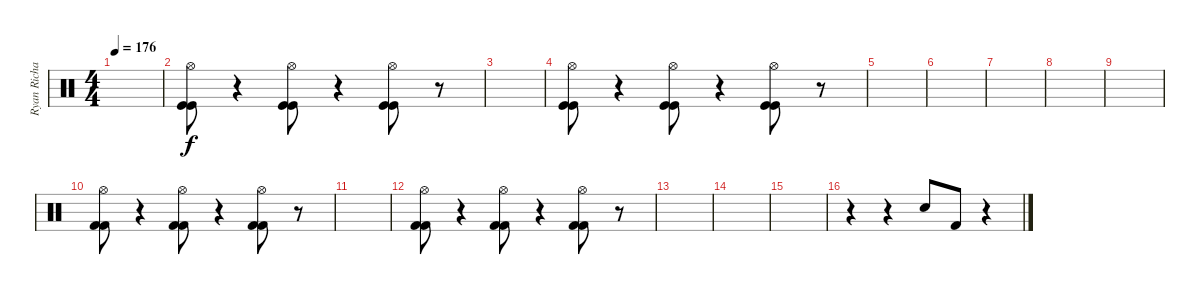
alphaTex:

\track ("Ryan Richards (drums)" "Ryan Richa") {instrument percussion}
\staff {score}
\articulation defaults
\ts (4 4)
\tempo 176
\clef neutral
\ks c
|
("Hi-Hat (open)" "Kick (hit)" "Kick (hit)").8 r.4{volume 0} ("Hi-Hat (open)" "Kick (hit)" "Kick (hit)").8{volume 13} r.4{volume 0} ("Hi-Hat (open)" "Kick (hit)" "Kick (hit)").8{volume 13} r.8{volume 0} |
|
("Hi-Hat (open)" "Kick (hit)" "Kick (hit)").8{volume 13} r.4{volume 0} ("Hi-Hat (open)" "Kick (hit)" "Kick (hit)").8{volume 13} r.4{volume 0} ("Hi-Hat (open)" "Kick (hit)" "Kick (hit)").8{volume 13} r.8{volume 0} |
|
|
|
|
|
("Hi-Hat (open)" "Kick (hit) 2" "Kick (hit) 2").8{volume 13} r.4{volume 0} ("Hi-Hat (open)" "Kick (hit) 2" "Kick (hit) 2").8{volume 13} r.4{volume 0} ("Hi-Hat (open)" "Kick (hit) 2" "Kick (hit) 2").8{volume 13} r.8{volume 0} |
|
("Hi-Hat (open)" "Kick (hit) 2" "Kick (hit) 2").8{volume 13} r.4{volume 0} ("Hi-Hat (open)" "Kick (hit) 2" "Kick (hit) 2").8{volume 13} r.4{volume 0} ("Hi-Hat (open)" "Kick (hit) 2" "Kick (hit) 2").8{volume 13} r.8 |
|
|
|
r.4 r.4 "Snare (hit) 2".8 "Kick (hit) 2".8 r.4
